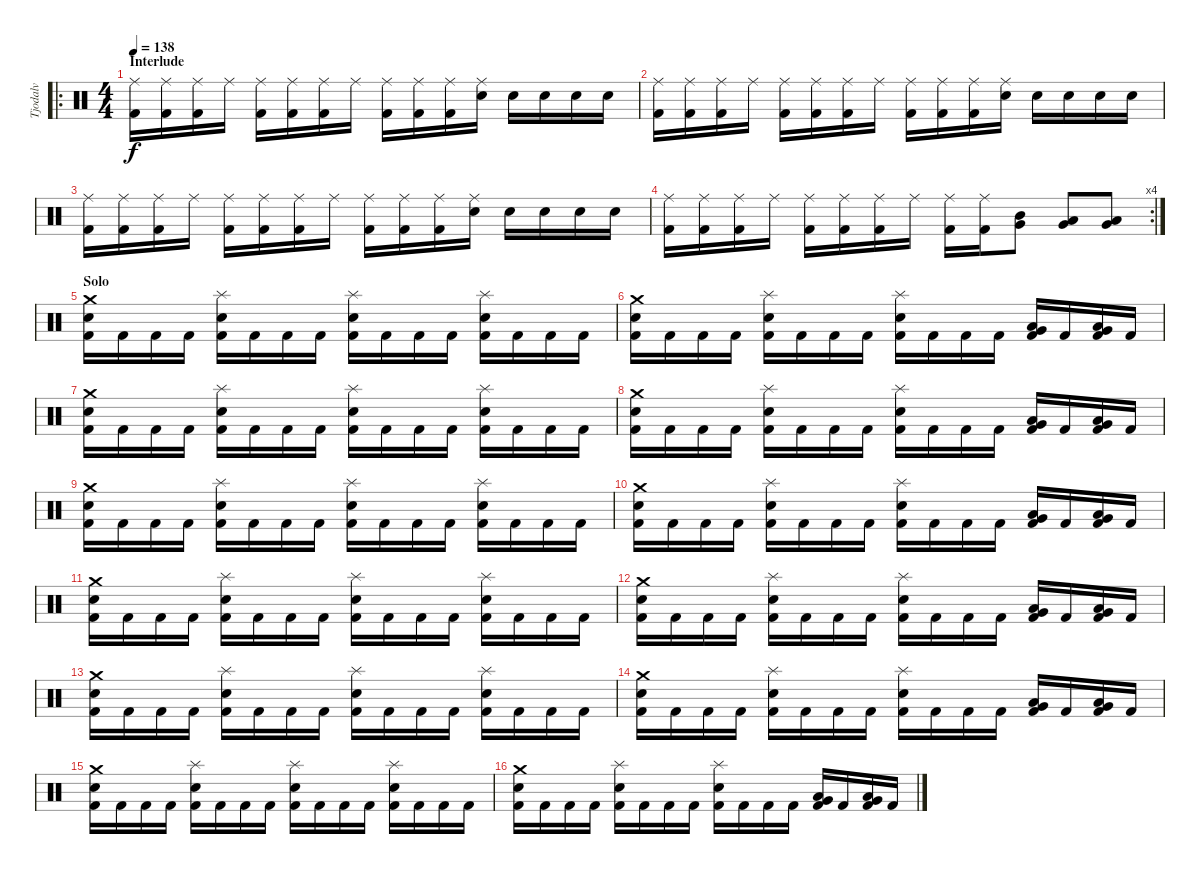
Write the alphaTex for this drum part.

\track ("Tjodalv" "Tjodalv") {instrument percussion}
\staff {score}
\articulation defaults
\ro
\ts (4 4)
\section ("" "Interlude")
\tempo 138
\clef neutral
\ks c
("Ride (middle)" "Kick (hit) 2").16{dy f} ("Ride (middle)" "Kick (hit) 2").16 ("Ride (middle)" "Kick (hit) 2").16 "Ride (middle)".16 ("Ride (middle)" "Kick (hit) 2").16 ("Ride (middle)" "Kick (hit) 2").16 ("Ride (middle)" "Kick (hit) 2").16 "Ride (middle)".16 ("Ride (middle)" "Kick (hit) 2").16 ("Ride (middle)" "Kick (hit) 2").16 ("Ride (middle)" "Kick (hit) 2").16 ("Ride (middle)" "Snare (hit) 2").16 "Snare (hit) 2".16 "Snare (hit) 2".16 "Snare (hit) 2".16 "Snare (hit) 2".16 |
("Ride (middle)" "Kick (hit) 2").16 ("Ride (middle)" "Kick (hit) 2").16 ("Ride (middle)" "Kick (hit) 2").16 "Ride (middle)".16 ("Ride (middle)" "Kick (hit) 2").16 ("Ride (middle)" "Kick (hit) 2").16 ("Ride (middle)" "Kick (hit) 2").16 "Ride (middle)".16 ("Ride (middle)" "Kick (hit) 2").16 ("Ride (middle)" "Kick (hit) 2").16 ("Ride (middle)" "Kick (hit) 2").16 ("Ride (middle)" "Snare (hit) 2").16 "Snare (hit) 2".16 "Snare (hit) 2".16 "Snare (hit) 2".16 "Snare (hit) 2".16 |
("Ride (middle)" "Kick (hit) 2").16 ("Ride (middle)" "Kick (hit) 2").16 ("Ride (middle)" "Kick (hit) 2").16 "Ride (middle)".16 ("Ride (middle)" "Kick (hit) 2").16 ("Ride (middle)" "Kick (hit) 2").16 ("Ride (middle)" "Kick (hit) 2").16 "Ride (middle)".16 ("Ride (middle)" "Kick (hit) 2").16 ("Ride (middle)" "Kick (hit) 2").16 ("Ride (middle)" "Kick (hit) 2").16 ("Ride (middle)" "Snare (hit) 2").16 "Snare (hit) 2".16 "Snare (hit) 2".16 "Snare (hit) 2".16 "Snare (hit) 2".16 |
\rc 4
("Ride (middle)" "Kick (hit) 2").16 ("Ride (middle)" "Kick (hit) 2").16 ("Ride (middle)" "Kick (hit) 2").16 "Ride (middle)".16 ("Ride (middle)" "Kick (hit) 2").16 ("Ride (middle)" "Kick (hit) 2").16 ("Ride (middle)" "Kick (hit) 2").16 "Ride (middle)".16 ("Ride (middle)" "Kick (hit) 2").16 ("Ride (middle)" "Kick (hit) 2").16 ("Mid Tom (hit)" "Very Low Tom (hit)").8 ("Low Tom (hit)" "Very Low Tom (hit)").8 ("Very Low Tom (hit)" "Low Floor Tom (hit)").8 |
\section ("" "Solo")
("Crash medium (hit)" "Snare (hit) 2" "Kick (hit) 2").16 "Kick (hit) 2".16 "Kick (hit) 2".16 "Kick (hit) 2".16 ("Splash (hit)" "Snare (hit) 2" "Kick (hit) 2").16 "Kick (hit) 2".16 "Kick (hit) 2".16 "Kick (hit) 2".16 ("Splash (hit)" "Snare (hit) 2" "Kick (hit) 2").16 "Kick (hit) 2".16 "Kick (hit) 2".16 "Kick (hit) 2".16 ("Splash (hit)" "Snare (hit) 2" "Kick (hit) 2").16 "Kick (hit) 2".16 "Kick (hit) 2".16 "Kick (hit) 2".16 |
("Crash medium (hit)" "Snare (hit) 2" "Kick (hit) 2").16 "Kick (hit) 2".16 "Kick (hit) 2".16 "Kick (hit) 2".16 ("Splash (hit)" "Snare (hit) 2" "Kick (hit) 2").16 "Kick (hit) 2".16 "Kick (hit) 2".16 "Kick (hit) 2".16 ("Splash (hit)" "Snare (hit) 2" "Kick (hit) 2").16 "Kick (hit) 2".16 "Kick (hit) 2".16 "Kick (hit) 2".16 ("Low Tom (hit)" "Very Low Tom (hit)" "Kick (hit) 2").16 "Kick (hit) 2".16 ("Low Floor Tom (hit)" "Very Low Tom (hit)" "Kick (hit) 2").16 "Kick (hit) 2".16 |
("Crash medium (hit)" "Snare (hit) 2" "Kick (hit) 2").16 "Kick (hit) 2".16 "Kick (hit) 2".16 "Kick (hit) 2".16 ("Splash (hit)" "Snare (hit) 2" "Kick (hit) 2").16 "Kick (hit) 2".16 "Kick (hit) 2".16 "Kick (hit) 2".16 ("Splash (hit)" "Snare (hit) 2" "Kick (hit) 2").16 "Kick (hit) 2".16 "Kick (hit) 2".16 "Kick (hit) 2".16 ("Splash (hit)" "Snare (hit) 2" "Kick (hit) 2").16 "Kick (hit) 2".16 "Kick (hit) 2".16 "Kick (hit) 2".16 |
("Crash medium (hit)" "Snare (hit) 2" "Kick (hit) 2").16 "Kick (hit) 2".16 "Kick (hit) 2".16 "Kick (hit) 2".16 ("Splash (hit)" "Snare (hit) 2" "Kick (hit) 2").16 "Kick (hit) 2".16 "Kick (hit) 2".16 "Kick (hit) 2".16 ("Splash (hit)" "Snare (hit) 2" "Kick (hit) 2").16 "Kick (hit) 2".16 "Kick (hit) 2".16 "Kick (hit) 2".16 ("Low Tom (hit)" "Very Low Tom (hit)" "Kick (hit) 2").16 "Kick (hit) 2".16 ("Low Floor Tom (hit)" "Very Low Tom (hit)" "Kick (hit) 2").16 "Kick (hit) 2".16 |
("Crash medium (hit)" "Snare (hit) 2" "Kick (hit) 2").16 "Kick (hit) 2".16 "Kick (hit) 2".16 "Kick (hit) 2".16 ("Splash (hit)" "Snare (hit) 2" "Kick (hit) 2").16 "Kick (hit) 2".16 "Kick (hit) 2".16 "Kick (hit) 2".16 ("Splash (hit)" "Snare (hit) 2" "Kick (hit) 2").16 "Kick (hit) 2".16 "Kick (hit) 2".16 "Kick (hit) 2".16 ("Splash (hit)" "Snare (hit) 2" "Kick (hit) 2").16 "Kick (hit) 2".16 "Kick (hit) 2".16 "Kick (hit) 2".16 |
("Crash medium (hit)" "Snare (hit) 2" "Kick (hit) 2").16 "Kick (hit) 2".16 "Kick (hit) 2".16 "Kick (hit) 2".16 ("Splash (hit)" "Snare (hit) 2" "Kick (hit) 2").16 "Kick (hit) 2".16 "Kick (hit) 2".16 "Kick (hit) 2".16 ("Splash (hit)" "Snare (hit) 2" "Kick (hit) 2").16 "Kick (hit) 2".16 "Kick (hit) 2".16 "Kick (hit) 2".16 ("Low Tom (hit)" "Very Low Tom (hit)" "Kick (hit) 2").16 "Kick (hit) 2".16 ("Low Floor Tom (hit)" "Very Low Tom (hit)" "Kick (hit) 2").16 "Kick (hit) 2".16 |
("Crash medium (hit)" "Snare (hit) 2" "Kick (hit) 2").16 "Kick (hit) 2".16 "Kick (hit) 2".16 "Kick (hit) 2".16 ("Splash (hit)" "Snare (hit) 2" "Kick (hit) 2").16 "Kick (hit) 2".16 "Kick (hit) 2".16 "Kick (hit) 2".16 ("Splash (hit)" "Snare (hit) 2" "Kick (hit) 2").16 "Kick (hit) 2".16 "Kick (hit) 2".16 "Kick (hit) 2".16 ("Splash (hit)" "Snare (hit) 2" "Kick (hit) 2").16 "Kick (hit) 2".16 "Kick (hit) 2".16 "Kick (hit) 2".16 |
("Crash medium (hit)" "Snare (hit) 2" "Kick (hit) 2").16 "Kick (hit) 2".16 "Kick (hit) 2".16 "Kick (hit) 2".16 ("Splash (hit)" "Snare (hit) 2" "Kick (hit) 2").16 "Kick (hit) 2".16 "Kick (hit) 2".16 "Kick (hit) 2".16 ("Splash (hit)" "Snare (hit) 2" "Kick (hit) 2").16 "Kick (hit) 2".16 "Kick (hit) 2".16 "Kick (hit) 2".16 ("Low Tom (hit)" "Very Low Tom (hit)" "Kick (hit) 2").16 "Kick (hit) 2".16 ("Low Floor Tom (hit)" "Very Low Tom (hit)" "Kick (hit) 2").16 "Kick (hit) 2".16 |
("Crash medium (hit)" "Snare (hit) 2" "Kick (hit) 2").16 "Kick (hit) 2".16 "Kick (hit) 2".16 "Kick (hit) 2".16 ("Splash (hit)" "Snare (hit) 2" "Kick (hit) 2").16 "Kick (hit) 2".16 "Kick (hit) 2".16 "Kick (hit) 2".16 ("Splash (hit)" "Snare (hit) 2" "Kick (hit) 2").16 "Kick (hit) 2".16 "Kick (hit) 2".16 "Kick (hit) 2".16 ("Splash (hit)" "Snare (hit) 2" "Kick (hit) 2").16 "Kick (hit) 2".16 "Kick (hit) 2".16 "Kick (hit) 2".16 |
("Crash medium (hit)" "Snare (hit) 2" "Kick (hit) 2").16 "Kick (hit) 2".16 "Kick (hit) 2".16 "Kick (hit) 2".16 ("Splash (hit)" "Snare (hit) 2" "Kick (hit) 2").16 "Kick (hit) 2".16 "Kick (hit) 2".16 "Kick (hit) 2".16 ("Splash (hit)" "Snare (hit) 2" "Kick (hit) 2").16 "Kick (hit) 2".16 "Kick (hit) 2".16 "Kick (hit) 2".16 ("Low Tom (hit)" "Very Low Tom (hit)" "Kick (hit) 2").16 "Kick (hit) 2".16 ("Low Floor Tom (hit)" "Very Low Tom (hit)" "Kick (hit) 2").16 "Kick (hit) 2".16 |
("Crash medium (hit)" "Snare (hit) 2" "Kick (hit) 2").16 "Kick (hit) 2".16 "Kick (hit) 2".16 "Kick (hit) 2".16 ("Splash (hit)" "Snare (hit) 2" "Kick (hit) 2").16 "Kick (hit) 2".16 "Kick (hit) 2".16 "Kick (hit) 2".16 ("Splash (hit)" "Snare (hit) 2" "Kick (hit) 2").16 "Kick (hit) 2".16 "Kick (hit) 2".16 "Kick (hit) 2".16 ("Splash (hit)" "Snare (hit) 2" "Kick (hit) 2").16 "Kick (hit) 2".16 "Kick (hit) 2".16 "Kick (hit) 2".16 |
("Crash medium (hit)" "Snare (hit) 2" "Kick (hit) 2").16 "Kick (hit) 2".16 "Kick (hit) 2".16 "Kick (hit) 2".16 ("Splash (hit)" "Snare (hit) 2" "Kick (hit) 2").16 "Kick (hit) 2".16 "Kick (hit) 2".16 "Kick (hit) 2".16 ("Splash (hit)" "Snare (hit) 2" "Kick (hit) 2").16 "Kick (hit) 2".16 "Kick (hit) 2".16 "Kick (hit) 2".16 ("Low Tom (hit)" "Very Low Tom (hit)" "Kick (hit) 2").16 "Kick (hit) 2".16 ("Low Floor Tom (hit)" "Very Low Tom (hit)" "Kick (hit) 2").16 "Kick (hit) 2".16
